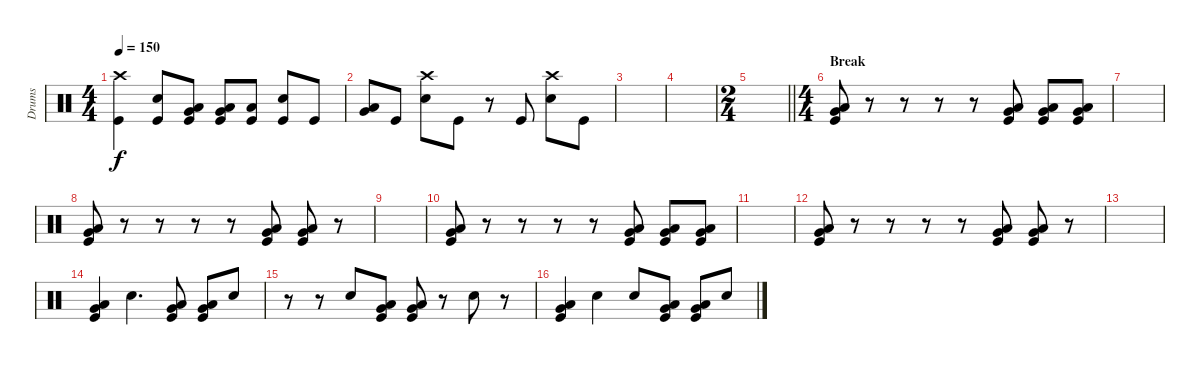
\track ("Drums" "Drums") {instrument percussion}
\staff {score}
\articulation defaults
\ts (4 4)
\tempo 150
\clef neutral
\ks c
("Crash high (hit)" "Kick (hit)").4{dy f} ("Snare (hit) 2" "Kick (hit)").8 ("Very Low Tom (hit)" "Low Tom (hit)" "Kick (hit)").8 ("Low Floor Tom (hit)" "Very Low Tom (hit)" "Kick (hit)").8 ("Low Floor Tom (hit)" "Kick (hit)").8 ("Snare (hit) 2" "Kick (hit)").8 "Kick (hit)".8 |
("Low Tom (hit)" "Very Low Tom (hit)").8 "Kick (hit)".8 ("Snare (hit) 2" "Crash high (hit)").8 "Kick (hit)".8 r.8 "Kick (hit)".8 ("Snare (hit) 2" "Crash high (hit)").8 "Kick (hit)".8 |
|
|
\ts (2 4)
\barLineRight lightlight
|
\ts (4 4)
\section ("" "Break")
("Low Tom (hit)" "Very Low Tom (hit)" "Kick (hit)").8 r.8 r.8 r.8 r.8 ("Low Tom (hit)" "Very Low Tom (hit)" "Kick (hit)").8 ("Low Tom (hit)" "Very Low Tom (hit)" "Kick (hit)").8 ("Low Tom (hit)" "Very Low Tom (hit)" "Kick (hit)").8 |
|
("Low Tom (hit)" "Very Low Tom (hit)" "Kick (hit)").8 r.8 r.8 r.8 r.8 ("Low Tom (hit)" "Very Low Tom (hit)" "Kick (hit)").8 ("Low Tom (hit)" "Very Low Tom (hit)" "Kick (hit)").8 r.8 |
|
("Low Tom (hit)" "Very Low Tom (hit)" "Kick (hit)").8 r.8 r.8 r.8 r.8 ("Low Tom (hit)" "Very Low Tom (hit)" "Kick (hit)").8 ("Low Tom (hit)" "Very Low Tom (hit)" "Kick (hit)").8 ("Low Tom (hit)" "Very Low Tom (hit)" "Kick (hit)").8 |
|
("Low Tom (hit)" "Very Low Tom (hit)" "Kick (hit)").8 r.8 r.8 r.8 r.8 ("Low Tom (hit)" "Very Low Tom (hit)" "Kick (hit)").8 ("Low Tom (hit)" "Very Low Tom (hit)" "Kick (hit)").8 r.8 |
|
("Kick (hit)" "Very Low Tom (hit)" "Low Tom (hit)").4 "Snare (hit) 2".4{d} ("Low Tom (hit)" "Kick (hit)" "Very Low Tom (hit)").8 ("Low Tom (hit)" "Kick (hit)" "Very Low Tom (hit)").8 "Snare (hit) 2".8 |
r.8 r.8 "Snare (hit) 2".8 ("Kick (hit)" "Low Tom (hit)" "Very Low Tom (hit)").8 ("Kick (hit)" "Low Tom (hit)" "Very Low Tom (hit)").8 r.8 "Snare (hit) 2".8 r.8 |
("Kick (hit)" "Very Low Tom (hit)" "Low Tom (hit)").4 "Snare (hit) 2".4 "Snare (hit) 2".8 ("Low Tom (hit)" "Kick (hit)" "Very Low Tom (hit)").8 ("Low Tom (hit)" "Kick (hit)" "Very Low Tom (hit)").8 "Snare (hit) 2".8
